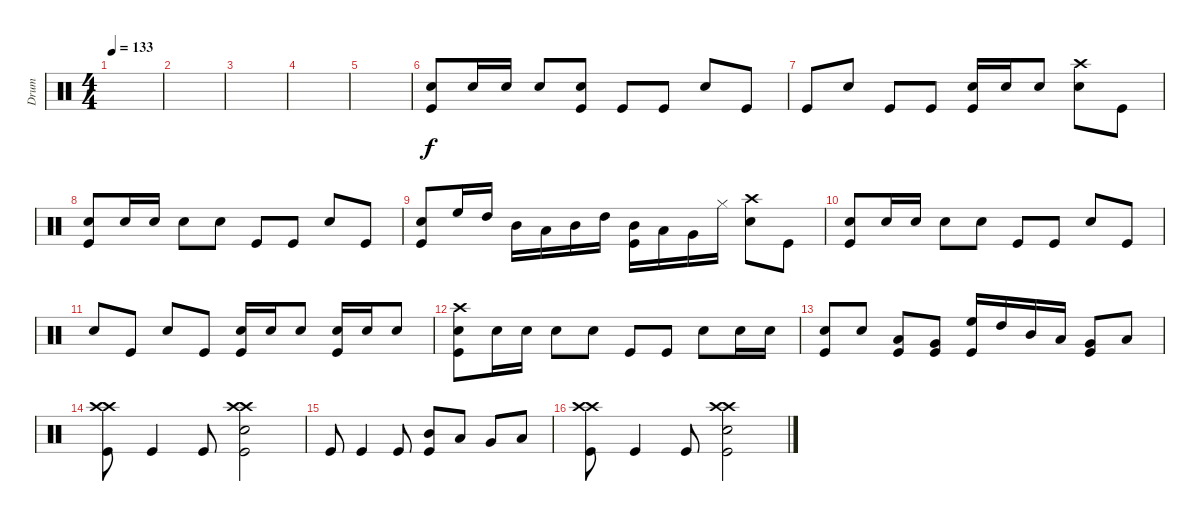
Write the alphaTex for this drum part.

\track ("Drum" "Drum") {instrument percussion}
\staff {score}
\articulation defaults
\ts (4 4)
\tempo 133
\clef neutral
\ks c
|
|
|
|
|
("Snare (hit) 2" "Kick (hit)").8 "Snare (hit) 2".16 "Snare (hit) 2".16 "Snare (hit) 2".8 ("Snare (hit) 2" "Kick (hit)").8 "Kick (hit)".8 "Kick (hit)".8 "Snare (hit) 2".8 "Kick (hit)".8 |
"Kick (hit)".8 "Snare (hit) 2".8 "Kick (hit)".8 "Kick (hit)".8 ("Snare (hit) 2" "Kick (hit)").16 "Snare (hit) 2".16 "Snare (hit) 2".8 ("Crash high (hit)" "Snare (hit) 2").8 "Kick (hit)".8 |
("Snare (hit) 2" "Kick (hit)").8 "Snare (hit) 2".16 "Snare (hit) 2".16 "Snare (hit) 2".8 "Snare (hit) 2".8 "Kick (hit)".8 "Kick (hit)".8 "Snare (hit) 2".8 "Kick (hit)".8 |
("Snare (hit) 2" "Kick (hit)").8 "High Floor Tom (hit)".16 "High Tom (hit)".16 "Mid Tom (hit)".16 "Low Tom (hit)".16 "Mid Tom (hit)".16 "High Tom (hit)".16 ("Mid Tom (hit)" "Kick (hit)").16 "Low Tom (hit)".16 "Very Low Tom (hit)".16 "Hi-Hat (closed)".16 ("Crash high (hit)" "Snare (hit) 2").8 "Kick (hit)".8 |
("Snare (hit) 2" "Kick (hit)").8 "Snare (hit) 2".16 "Snare (hit) 2".16 "Snare (hit) 2".8 "Snare (hit) 2".8 "Kick (hit)".8 "Kick (hit)".8 "Snare (hit) 2".8 "Kick (hit)".8 |
"Snare (hit) 2".8 "Kick (hit)".8 "Snare (hit) 2".8 "Kick (hit)".8 ("Snare (hit) 2" "Kick (hit)").16 "Snare (hit) 2".16 "Snare (hit) 2".8 ("Snare (hit) 2" "Kick (hit)").16 "Snare (hit) 2".16 "Snare (hit) 2".8 |
("Crash high (hit)" "Snare (hit) 2" "Kick (hit)").8 "Snare (hit) 2".16 "Snare (hit) 2".16 "Snare (hit) 2".8 "Snare (hit) 2".8 "Kick (hit)".8 "Kick (hit)".8 "Snare (hit) 2".8 "Snare (hit) 2".16 "Snare (hit) 2".16 |
("Snare (hit) 2" "Kick (hit)").8 "Snare (hit) 2".8 ("Low Tom (hit)" "Kick (hit)").8 ("Very Low Tom (hit)" "Kick (hit)").8 ("High Floor Tom (hit)" "Kick (hit)").16 "High Tom (hit)".16 "Mid Tom (hit)".16 "Low Tom (hit)".16 ("Very Low Tom (hit)" "Kick (hit)").8 "Low Floor Tom (hit)".8 |
("Crash high (hit)" "Crash high (hit)" "Kick (hit)").8 "Kick (hit)".4 "Kick (hit)".8 ("Crash high (hit)" "Crash high (hit)" "Snare (hit) 2" "Kick (hit)").2 |
"Kick (hit)".8 "Kick (hit)".4 "Kick (hit)".8 ("Mid Tom (hit)" "Kick (hit)").8 "Low Tom (hit)".8 "Very Low Tom (hit)".8 "Low Floor Tom (hit)".8 |
("Crash high (hit)" "Crash high (hit)" "Kick (hit)").8 "Kick (hit)".4 "Kick (hit)".8 ("Crash high (hit)" "Crash high (hit)" "Snare (hit) 2" "Kick (hit)").2
